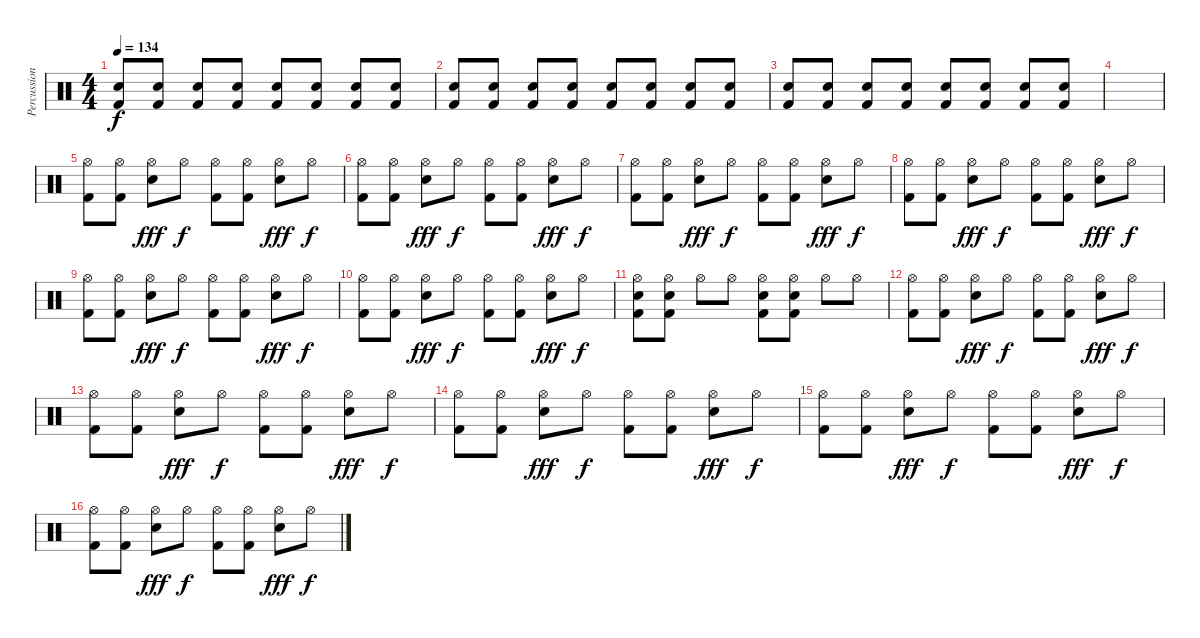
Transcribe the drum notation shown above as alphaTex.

\track ("Percussion" "Percussion") {instrument percussion}
\staff {score}
\articulation defaults
\ts (4 4)
\tempo 134
\clef neutral
\ks c
("Snare (hit) 2" "Kick (hit) 2").8{dy f} ("Snare (hit) 2" "Kick (hit) 2").8 ("Snare (hit) 2" "Kick (hit) 2").8 ("Snare (hit) 2" "Kick (hit) 2").8 ("Snare (hit) 2" "Kick (hit) 2").8 ("Snare (hit) 2" "Kick (hit) 2").8 ("Snare (hit) 2" "Kick (hit) 2").8 ("Snare (hit) 2" "Kick (hit) 2").8 |
("Snare (hit) 2" "Kick (hit) 2").8 ("Snare (hit) 2" "Kick (hit) 2").8 ("Snare (hit) 2" "Kick (hit) 2").8 ("Snare (hit) 2" "Kick (hit) 2").8 ("Snare (hit) 2" "Kick (hit) 2").8 ("Snare (hit) 2" "Kick (hit) 2").8 ("Snare (hit) 2" "Kick (hit) 2").8 ("Snare (hit) 2" "Kick (hit) 2").8 |
("Snare (hit) 2" "Kick (hit) 2").8 ("Snare (hit) 2" "Kick (hit) 2").8 ("Snare (hit) 2" "Kick (hit) 2").8 ("Snare (hit) 2" "Kick (hit) 2").8 ("Snare (hit) 2" "Kick (hit) 2").8 ("Snare (hit) 2" "Kick (hit) 2").8 ("Snare (hit) 2" "Kick (hit) 2").8 ("Snare (hit) 2" "Kick (hit) 2").8 |
|
("Hi-Hat (open)" "Kick (hit) 2").8 ("Hi-Hat (open)" "Kick (hit) 2").8 ("Hi-Hat (open)" "Snare (hit) 2").8{dy fff} "Hi-Hat (open)".8{dy f} ("Hi-Hat (open)" "Kick (hit) 2").8 ("Hi-Hat (open)" "Kick (hit) 2").8 ("Hi-Hat (open)" "Snare (hit) 2").8{dy fff} "Hi-Hat (open)".8{dy f} |
("Hi-Hat (open)" "Kick (hit) 2").8 ("Hi-Hat (open)" "Kick (hit) 2").8 ("Hi-Hat (open)" "Snare (hit) 2").8{dy fff} "Hi-Hat (open)".8{dy f} ("Hi-Hat (open)" "Kick (hit) 2").8 ("Hi-Hat (open)" "Kick (hit) 2").8 ("Hi-Hat (open)" "Snare (hit) 2").8{dy fff} "Hi-Hat (open)".8{dy f} |
("Hi-Hat (open)" "Kick (hit) 2").8 ("Hi-Hat (open)" "Kick (hit) 2").8 ("Hi-Hat (open)" "Snare (hit) 2").8{dy fff} "Hi-Hat (open)".8{dy f} ("Hi-Hat (open)" "Kick (hit) 2").8 ("Hi-Hat (open)" "Kick (hit) 2").8 ("Hi-Hat (open)" "Snare (hit) 2").8{dy fff} "Hi-Hat (open)".8{dy f} |
("Hi-Hat (open)" "Kick (hit) 2").8 ("Hi-Hat (open)" "Kick (hit) 2").8 ("Hi-Hat (open)" "Snare (hit) 2").8{dy fff} "Hi-Hat (open)".8{dy f} ("Hi-Hat (open)" "Kick (hit) 2").8 ("Hi-Hat (open)" "Kick (hit) 2").8 ("Hi-Hat (open)" "Snare (hit) 2").8{dy fff} "Hi-Hat (open)".8{dy f} |
("Hi-Hat (open)" "Kick (hit) 2").8 ("Hi-Hat (open)" "Kick (hit) 2").8 ("Hi-Hat (open)" "Snare (hit) 2").8{dy fff} "Hi-Hat (open)".8{dy f} ("Hi-Hat (open)" "Kick (hit) 2").8 ("Hi-Hat (open)" "Kick (hit) 2").8 ("Hi-Hat (open)" "Snare (hit) 2").8{dy fff} "Hi-Hat (open)".8{dy f} |
("Hi-Hat (open)" "Kick (hit) 2").8 ("Hi-Hat (open)" "Kick (hit) 2").8 ("Hi-Hat (open)" "Snare (hit) 2").8{dy fff} "Hi-Hat (open)".8{dy f} ("Hi-Hat (open)" "Kick (hit) 2").8 ("Hi-Hat (open)" "Kick (hit) 2").8 ("Hi-Hat (open)" "Snare (hit) 2").8{dy fff} "Hi-Hat (open)".8{dy f} |
("Hi-Hat (open)" "Snare (hit) 2" "Kick (hit) 2").8 ("Hi-Hat (open)" "Snare (hit) 2" "Kick (hit) 2").8 "Hi-Hat (open)".8 "Hi-Hat (open)".8 ("Hi-Hat (open)" "Snare (hit) 2" "Kick (hit) 2").8 ("Hi-Hat (open)" "Snare (hit) 2" "Kick (hit) 2").8 "Hi-Hat (open)".8 "Hi-Hat (open)".8 |
("Hi-Hat (open)" "Kick (hit) 2").8 ("Hi-Hat (open)" "Kick (hit) 2").8 ("Hi-Hat (open)" "Snare (hit) 2").8{dy fff} "Hi-Hat (open)".8{dy f} ("Hi-Hat (open)" "Kick (hit) 2").8 ("Hi-Hat (open)" "Kick (hit) 2").8 ("Hi-Hat (open)" "Snare (hit) 2").8{dy fff} "Hi-Hat (open)".8{dy f} |
("Hi-Hat (open)" "Kick (hit) 2").8 ("Hi-Hat (open)" "Kick (hit) 2").8 ("Hi-Hat (open)" "Snare (hit) 2").8{dy fff} "Hi-Hat (open)".8{dy f} ("Hi-Hat (open)" "Kick (hit) 2").8 ("Hi-Hat (open)" "Kick (hit) 2").8 ("Hi-Hat (open)" "Snare (hit) 2").8{dy fff} "Hi-Hat (open)".8{dy f} |
("Hi-Hat (open)" "Kick (hit) 2").8 ("Hi-Hat (open)" "Kick (hit) 2").8 ("Hi-Hat (open)" "Snare (hit) 2").8{dy fff} "Hi-Hat (open)".8{dy f} ("Hi-Hat (open)" "Kick (hit) 2").8 ("Hi-Hat (open)" "Kick (hit) 2").8 ("Hi-Hat (open)" "Snare (hit) 2").8{dy fff} "Hi-Hat (open)".8{dy f} |
("Hi-Hat (open)" "Kick (hit) 2").8 ("Hi-Hat (open)" "Kick (hit) 2").8 ("Hi-Hat (open)" "Snare (hit) 2").8{dy fff} "Hi-Hat (open)".8{dy f} ("Hi-Hat (open)" "Kick (hit) 2").8 ("Hi-Hat (open)" "Kick (hit) 2").8 ("Hi-Hat (open)" "Snare (hit) 2").8{dy fff} "Hi-Hat (open)".8{dy f} |
("Hi-Hat (open)" "Kick (hit) 2").8 ("Hi-Hat (open)" "Kick (hit) 2").8 ("Hi-Hat (open)" "Snare (hit) 2").8{dy fff} "Hi-Hat (open)".8{dy f} ("Hi-Hat (open)" "Kick (hit) 2").8 ("Hi-Hat (open)" "Kick (hit) 2").8 ("Hi-Hat (open)" "Snare (hit) 2").8{dy fff} "Hi-Hat (open)".8{dy f}
